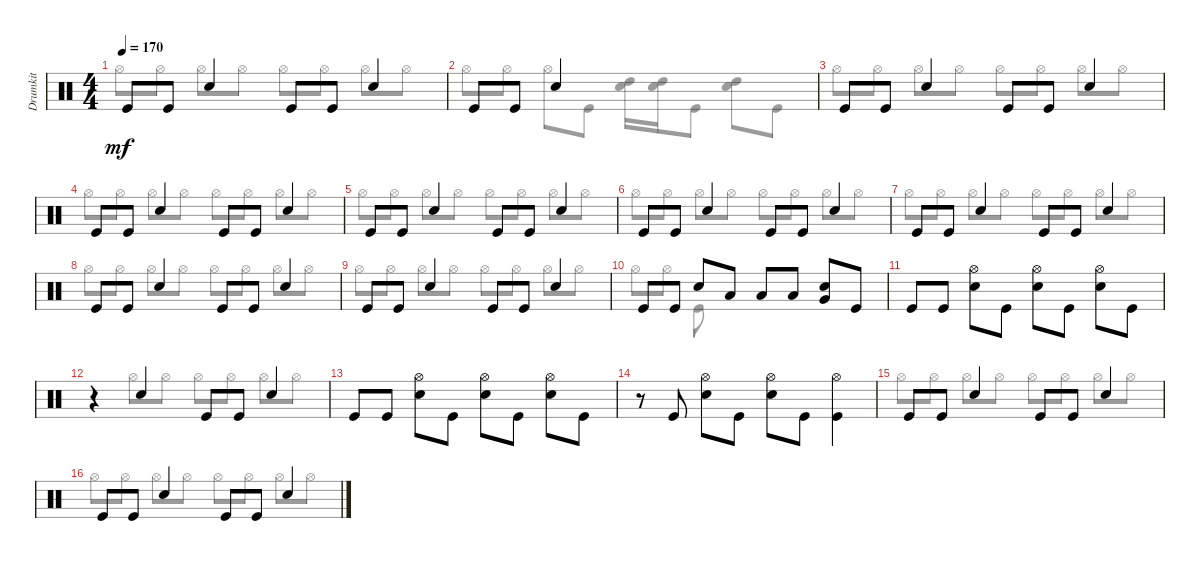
\track ("Drumkit" "Drumkit") {instrument percussion}
\staff {score}
\articulation defaults
\voice
\ts (4 4)
\tempo 170
\clef neutral
\ks c "Kick (hit)".8{dy mf} "Kick (hit)".8 "Snare (hit) 2".4 "Kick (hit)".8 "Kick (hit)".8 "Snare (hit) 2".4
|
"Kick (hit)".8 "Kick (hit)".8 "Snare (hit) 2".4 |
"Kick (hit)".8 "Kick (hit)".8 "Snare (hit) 2".4 "Kick (hit)".8 "Kick (hit)".8 "Snare (hit) 2".4 |
"Kick (hit)".8 "Kick (hit)".8 "Snare (hit) 2".4 "Kick (hit)".8 "Kick (hit)".8 "Snare (hit) 2".4 |
"Kick (hit)".8 "Kick (hit)".8 "Snare (hit) 2".4 "Kick (hit)".8 "Kick (hit)".8 "Snare (hit) 2".4 |
"Kick (hit)".8 "Kick (hit)".8 "Snare (hit) 2".4 "Kick (hit)".8 "Kick (hit)".8 "Snare (hit) 2".4 |
"Kick (hit)".8 "Kick (hit)".8 "Snare (hit) 2".4 "Kick (hit)".8 "Kick (hit)".8 "Snare (hit) 2".4 |
"Kick (hit)".8 "Kick (hit)".8 "Snare (hit) 2".4 "Kick (hit)".8 "Kick (hit)".8 "Snare (hit) 2".4 |
"Kick (hit)".8 "Kick (hit)".8 "Snare (hit) 2".4 "Kick (hit)".8 "Kick (hit)".8 "Snare (hit) 2".4 |
"Kick (hit)".8 "Kick (hit)".8 "Snare (hit) 2".8 "Low Tom (hit)".8 "Low Tom (hit)".8 "Low Tom (hit)".8 ("Very Low Tom (hit)" "Snare (hit) 2").8 "Kick (hit)".8 |
"Kick (hit)".8 "Kick (hit)".8 ("Snare (hit) 2" "Hi-Hat (open)").8 "Kick (hit)".8 ("Snare (hit) 2" "Hi-Hat (open)").8 "Kick (hit)".8 ("Snare (hit) 2" "Hi-Hat (open)").8 "Kick (hit)".8 |
r.4 "Snare (hit) 2".4 "Kick (hit)".8 "Kick (hit)".8 "Snare (hit) 2".4 |
"Kick (hit)".8 "Kick (hit)".8 ("Snare (hit) 2" "Hi-Hat (open)").8 "Kick (hit)".8 ("Snare (hit) 2" "Hi-Hat (open)").8 "Kick (hit)".8 ("Snare (hit) 2" "Hi-Hat (open)").8 "Kick (hit)".8 |
r.8 "Kick (hit)".8 ("Snare (hit) 2" "Hi-Hat (open)").8 "Kick (hit)".8 ("Snare (hit) 2" "Hi-Hat (open)").8 "Kick (hit)".8 ("Kick (hit)" "Hi-Hat (open)").4 |
"Kick (hit)".8 "Kick (hit)".8 "Snare (hit) 2".4 "Kick (hit)".8 "Kick (hit)".8 "Snare (hit) 2".4 |
"Kick (hit)".8 "Kick (hit)".8 "Snare (hit) 2".4 "Kick (hit)".8 "Kick (hit)".8 "Snare (hit) 2".4
\voice
\clef neutral
\ottava regular
\simile none
\ks c "Hi-Hat (open)".8{dy mf} "Hi-Hat (open)".8 "Hi-Hat (open)".8 "Hi-Hat (open)".8 "Hi-Hat (open)".8 "Hi-Hat (open)".8 "Hi-Hat (open)".8 "Hi-Hat (open)".8
|
"Hi-Hat (open)".8 "Hi-Hat (open)".8 "Hi-Hat (open)".8 "Kick (hit)".8 ("Snare (hit) 2" "High Tom (hit)").16 ("Snare (hit) 2" "High Tom (hit)").16 "Kick (hit)".8 ("High Tom (hit)" "Snare (hit) 2").8 "Kick (hit)".8 |
"Hi-Hat (open)".8 "Hi-Hat (open)".8 "Hi-Hat (open)".8 "Hi-Hat (open)".8 "Hi-Hat (open)".8 "Hi-Hat (open)".8 "Hi-Hat (open)".8 "Hi-Hat (open)".8 |
"Hi-Hat (open)".8 "Hi-Hat (open)".8 "Hi-Hat (open)".8 "Hi-Hat (open)".8 "Hi-Hat (open)".8 "Hi-Hat (open)".8 "Hi-Hat (open)".8 "Hi-Hat (open)".8 |
"Hi-Hat (open)".8 "Hi-Hat (open)".8 "Hi-Hat (open)".8 "Hi-Hat (open)".8 "Hi-Hat (open)".8 "Hi-Hat (open)".8 "Hi-Hat (open)".8 "Hi-Hat (open)".8 |
"Hi-Hat (open)".8 "Hi-Hat (open)".8 "Hi-Hat (open)".8 "Hi-Hat (open)".8 "Hi-Hat (open)".8 "Hi-Hat (open)".8 "Hi-Hat (open)".8 "Hi-Hat (open)".8 |
"Hi-Hat (open)".8 "Hi-Hat (open)".8 "Hi-Hat (open)".8 "Hi-Hat (open)".8 "Hi-Hat (open)".8 "Hi-Hat (open)".8 "Hi-Hat (open)".8 "Hi-Hat (open)".8 |
"Hi-Hat (open)".8 "Hi-Hat (open)".8 "Hi-Hat (open)".8 "Hi-Hat (open)".8 "Hi-Hat (open)".8 "Hi-Hat (open)".8 "Hi-Hat (open)".8 "Hi-Hat (open)".8 |
"Hi-Hat (open)".8 "Hi-Hat (open)".8 "Hi-Hat (open)".8 "Hi-Hat (open)".8 "Hi-Hat (open)".8 "Hi-Hat (open)".8 "Hi-Hat (open)".8 "Hi-Hat (open)".8 |
"Hi-Hat (open)".8 "Hi-Hat (open)".8 "Kick (hit)".8 |
|
r.4 "Hi-Hat (open)".8 "Hi-Hat (open)".8 "Hi-Hat (open)".8 "Hi-Hat (open)".8 "Hi-Hat (open)".8 "Hi-Hat (open)".8 |
|
|
"Hi-Hat (open)".8 "Hi-Hat (open)".8 "Hi-Hat (open)".8 "Hi-Hat (open)".8 "Hi-Hat (open)".8 "Hi-Hat (open)".8 "Hi-Hat (open)".8 "Hi-Hat (open)".8 |
"Hi-Hat (open)".8 "Hi-Hat (open)".8 "Hi-Hat (open)".8 "Hi-Hat (open)".8 "Hi-Hat (open)".8 "Hi-Hat (open)".8 "Hi-Hat (open)".8 "Hi-Hat (open)".8
